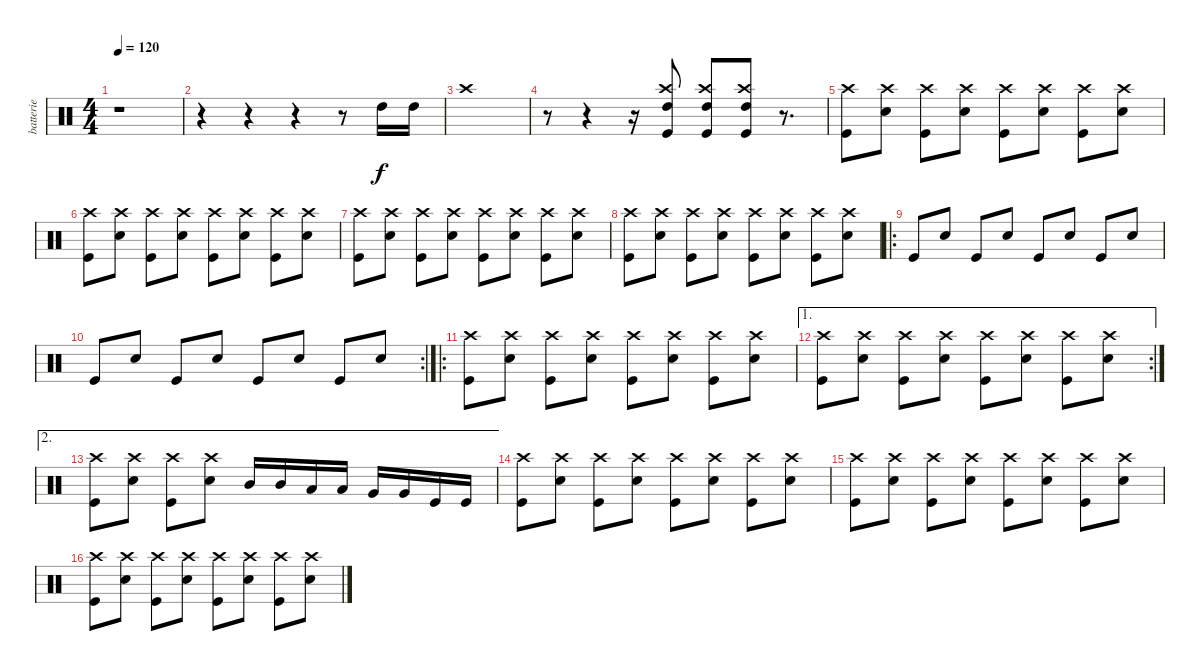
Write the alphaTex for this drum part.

\track ("batterie" "batterie") {instrument percussion}
\staff {score}
\articulation defaults
\ts (4 4)
\tempo 120
\clef neutral
\ks c
r.1{dy f} |
r.4 r.4 r.4 r.8 "High Tom (hit)".16 "High Tom (hit)".16 |
"Crash high (hit)".1 |
r.8 r.4 r.16 ("High Tom (hit)" "Crash high (hit)" "Kick (hit)").8 ("High Tom (hit)" "Crash high (hit)" "Kick (hit)").8 ("High Tom (hit)" "Crash high (hit)" "Kick (hit)").8 r.8{d} |
("Crash high (hit)" "Kick (hit)").8 ("Crash high (hit)" "Snare (hit) 2").8 ("Crash high (hit)" "Kick (hit)").8 ("Crash high (hit)" "Snare (hit) 2").8 ("Crash high (hit)" "Kick (hit)").8 ("Crash high (hit)" "Snare (hit) 2").8 ("Crash high (hit)" "Kick (hit)").8 ("Crash high (hit)" "Snare (hit) 2").8 |
("Crash high (hit)" "Kick (hit)").8 ("Crash high (hit)" "Snare (hit) 2").8 ("Crash high (hit)" "Kick (hit)").8 ("Crash high (hit)" "Snare (hit) 2").8 ("Crash high (hit)" "Kick (hit)").8 ("Crash high (hit)" "Snare (hit) 2").8 ("Crash high (hit)" "Kick (hit)").8 ("Crash high (hit)" "Snare (hit) 2").8 |
("Crash high (hit)" "Kick (hit)").8 ("Crash high (hit)" "Snare (hit) 2").8 ("Crash high (hit)" "Kick (hit)").8 ("Crash high (hit)" "Snare (hit) 2").8 ("Crash high (hit)" "Kick (hit)").8 ("Crash high (hit)" "Snare (hit) 2").8 ("Crash high (hit)" "Kick (hit)").8 ("Crash high (hit)" "Snare (hit) 2").8 |
("Crash high (hit)" "Kick (hit)").8 ("Crash high (hit)" "Snare (hit) 2").8 ("Crash high (hit)" "Kick (hit)").8 ("Crash high (hit)" "Snare (hit) 2").8 ("Crash high (hit)" "Kick (hit)").8 ("Crash high (hit)" "Snare (hit) 2").8 ("Crash high (hit)" "Kick (hit)").8 ("Crash high (hit)" "Snare (hit) 2").8 |
\ro "Kick (hit)".8 "Snare (hit) 2".8 "Kick (hit)".8 "Snare (hit) 2".8 "Kick (hit)".8 "Snare (hit) 2".8 "Kick (hit)".8 "Snare (hit) 2".8
|
\rc 2 "Kick (hit)".8 "Snare (hit) 2".8 "Kick (hit)".8 "Snare (hit) 2".8 "Kick (hit)".8 "Snare (hit) 2".8 "Kick (hit)".8 "Snare (hit) 2".8
|
\ro
("Crash high (hit)" "Kick (hit)").8 ("Crash high (hit)" "Snare (hit) 2").8 ("Crash high (hit)" "Kick (hit)").8 ("Crash high (hit)" "Snare (hit) 2").8 ("Crash high (hit)" "Kick (hit)").8 ("Crash high (hit)" "Snare (hit) 2").8 ("Crash high (hit)" "Kick (hit)").8 ("Crash high (hit)" "Snare (hit) 2").8 |
\ae 1
\rc 2
("Crash high (hit)" "Kick (hit)").8 ("Crash high (hit)" "Snare (hit) 2").8 ("Crash high (hit)" "Kick (hit)").8 ("Crash high (hit)" "Snare (hit) 2").8 ("Crash high (hit)" "Kick (hit)").8 ("Crash high (hit)" "Snare (hit) 2").8 ("Crash high (hit)" "Kick (hit)").8 ("Crash high (hit)" "Snare (hit) 2").8 |
\ae 2
("Crash high (hit)" "Kick (hit)").8 ("Crash high (hit)" "Snare (hit) 2").8 ("Crash high (hit)" "Kick (hit)").8 ("Crash high (hit)" "Snare (hit) 2").8 "Mid Tom (hit)".16 "Mid Tom (hit)".16 "Low Tom (hit)".16 "Low Tom (hit)".16 "Very Low Tom (hit)".16 "Very Low Tom (hit)".16 "Kick (hit)".16 "Kick (hit)".16 |
("Crash high (hit)" "Kick (hit)").8 ("Crash high (hit)" "Snare (hit) 2").8 ("Crash high (hit)" "Kick (hit)").8 ("Crash high (hit)" "Snare (hit) 2").8 ("Crash high (hit)" "Kick (hit)").8 ("Crash high (hit)" "Snare (hit) 2").8 ("Crash high (hit)" "Kick (hit)").8 ("Crash high (hit)" "Snare (hit) 2").8 |
("Crash high (hit)" "Kick (hit)").8 ("Crash high (hit)" "Snare (hit) 2").8 ("Crash high (hit)" "Kick (hit)").8 ("Crash high (hit)" "Snare (hit) 2").8 ("Crash high (hit)" "Kick (hit)").8 ("Crash high (hit)" "Snare (hit) 2").8 ("Crash high (hit)" "Kick (hit)").8 ("Crash high (hit)" "Snare (hit) 2").8 |
("Crash high (hit)" "Kick (hit)").8 ("Crash high (hit)" "Snare (hit) 2").8 ("Crash high (hit)" "Kick (hit)").8 ("Crash high (hit)" "Snare (hit) 2").8 ("Crash high (hit)" "Kick (hit)").8 ("Crash high (hit)" "Snare (hit) 2").8 ("Crash high (hit)" "Kick (hit)").8 ("Crash high (hit)" "Snare (hit) 2").8
